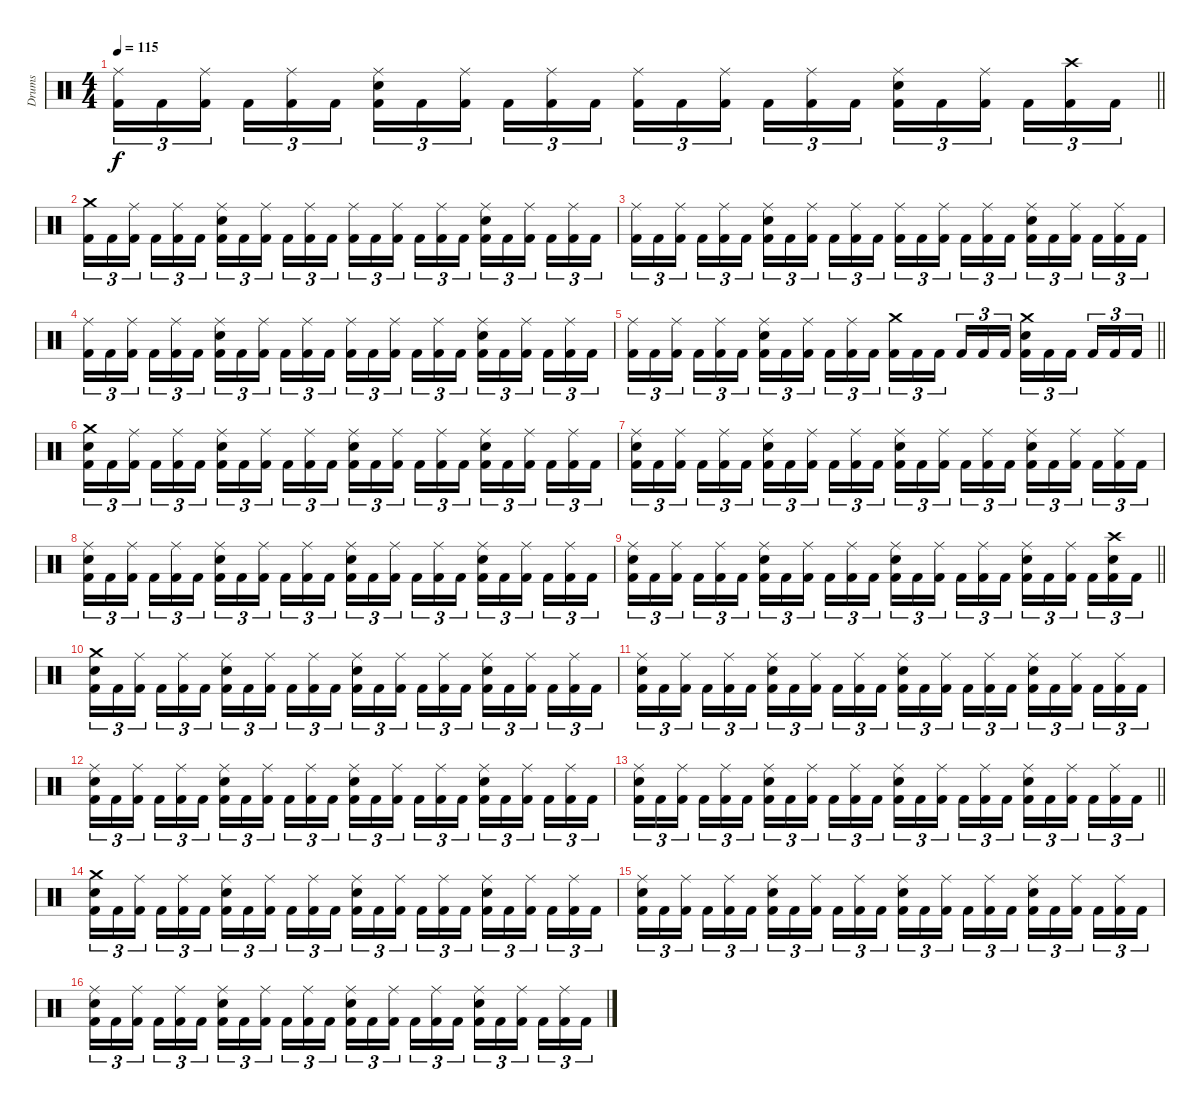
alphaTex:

\track ("Drums" "Drums") {instrument percussion}
\staff {score}
\articulation defaults
\ts (4 4)
\tempo 115
\clef neutral
\barLineRight lightlight
\ks c
("Kick (hit) 2" "Ride (middle)").16{tu (3 2) dy f} "Kick (hit) 2".16{tu (3 2)} ("Kick (hit) 2" "Ride (middle)").16{tu (3 2)} "Kick (hit) 2".16{tu (3 2)} ("Kick (hit) 2" "Ride (middle)").16{tu (3 2)} "Kick (hit) 2".16{tu (3 2)} ("Kick (hit) 2" "Electric Snare (hit)" "Ride (middle)").16{tu (3 2)} "Kick (hit) 2".16{tu (3 2)} ("Kick (hit) 2" "Ride (middle)").16{tu (3 2)} "Kick (hit) 2".16{tu (3 2)} ("Kick (hit) 2" "Ride (middle)").16{tu (3 2)} "Kick (hit) 2".16{tu (3 2)} ("Kick (hit) 2" "Ride (middle)").16{tu (3 2)} "Kick (hit) 2".16{tu (3 2)} ("Kick (hit) 2" "Ride (middle)").16{tu (3 2)} "Kick (hit) 2".16{tu (3 2)} ("Kick (hit) 2" "Ride (middle)").16{tu (3 2)} "Kick (hit) 2".16{tu (3 2)} ("Kick (hit) 2" "Electric Snare (hit)" "Ride (middle)").16{tu (3 2)} "Kick (hit) 2".16{tu (3 2)} ("Kick (hit) 2" "Ride (middle)").16{tu (3 2)} "Kick (hit) 2".16{tu (3 2)} ("Kick (hit) 2" "Crash high (hit)").16{tu (3 2)} "Kick (hit) 2".16{tu (3 2)} |
("Kick (hit) 2" "Crash medium (hit)").16{tu (3 2) volume 14} "Kick (hit) 2".16{tu (3 2)} ("Kick (hit) 2" "Ride (middle)").16{tu (3 2)} "Kick (hit) 2".16{tu (3 2)} ("Kick (hit) 2" "Ride (middle)").16{tu (3 2)} "Kick (hit) 2".16{tu (3 2)} ("Kick (hit) 2" "Electric Snare (hit)" "Ride (middle)").16{tu (3 2)} "Kick (hit) 2".16{tu (3 2)} ("Kick (hit) 2" "Ride (middle)").16{tu (3 2)} "Kick (hit) 2".16{tu (3 2)} ("Kick (hit) 2" "Ride (middle)").16{tu (3 2)} "Kick (hit) 2".16{tu (3 2)} ("Kick (hit) 2" "Ride (middle)").16{tu (3 2)} "Kick (hit) 2".16{tu (3 2)} ("Kick (hit) 2" "Ride (middle)").16{tu (3 2)} "Kick (hit) 2".16{tu (3 2)} ("Kick (hit) 2" "Ride (middle)").16{tu (3 2)} "Kick (hit) 2".16{tu (3 2)} ("Kick (hit) 2" "Electric Snare (hit)" "Ride (middle)").16{tu (3 2)} "Kick (hit) 2".16{tu (3 2)} ("Kick (hit) 2" "Ride (middle)").16{tu (3 2)} "Kick (hit) 2".16{tu (3 2)} ("Kick (hit) 2" "Ride (middle)").16{tu (3 2)} "Kick (hit) 2".16{tu (3 2)} |
("Kick (hit) 2" "Ride (middle)").16{tu (3 2)} "Kick (hit) 2".16{tu (3 2)} ("Kick (hit) 2" "Ride (middle)").16{tu (3 2)} "Kick (hit) 2".16{tu (3 2)} ("Kick (hit) 2" "Ride (middle)").16{tu (3 2)} "Kick (hit) 2".16{tu (3 2)} ("Kick (hit) 2" "Electric Snare (hit)" "Ride (middle)").16{tu (3 2)} "Kick (hit) 2".16{tu (3 2)} ("Kick (hit) 2" "Ride (middle)").16{tu (3 2)} "Kick (hit) 2".16{tu (3 2)} ("Kick (hit) 2" "Ride (middle)").16{tu (3 2)} "Kick (hit) 2".16{tu (3 2)} ("Kick (hit) 2" "Ride (middle)").16{tu (3 2)} "Kick (hit) 2".16{tu (3 2)} ("Kick (hit) 2" "Ride (middle)").16{tu (3 2)} "Kick (hit) 2".16{tu (3 2)} ("Kick (hit) 2" "Ride (middle)").16{tu (3 2)} "Kick (hit) 2".16{tu (3 2)} ("Kick (hit) 2" "Electric Snare (hit)" "Ride (middle)").16{tu (3 2)} "Kick (hit) 2".16{tu (3 2)} ("Kick (hit) 2" "Ride (middle)").16{tu (3 2)} "Kick (hit) 2".16{tu (3 2)} ("Kick (hit) 2" "Ride (middle)").16{tu (3 2)} "Kick (hit) 2".16{tu (3 2)} |
("Kick (hit) 2" "Ride (middle)").16{tu (3 2) volume 12} "Kick (hit) 2".16{tu (3 2)} ("Kick (hit) 2" "Ride (middle)").16{tu (3 2)} "Kick (hit) 2".16{tu (3 2)} ("Kick (hit) 2" "Ride (middle)").16{tu (3 2)} "Kick (hit) 2".16{tu (3 2)} ("Kick (hit) 2" "Electric Snare (hit)" "Ride (middle)").16{tu (3 2)} "Kick (hit) 2".16{tu (3 2)} ("Kick (hit) 2" "Ride (middle)").16{tu (3 2)} "Kick (hit) 2".16{tu (3 2)} ("Kick (hit) 2" "Ride (middle)").16{tu (3 2)} "Kick (hit) 2".16{tu (3 2)} ("Kick (hit) 2" "Ride (middle)").16{tu (3 2)} "Kick (hit) 2".16{tu (3 2)} ("Kick (hit) 2" "Ride (middle)").16{tu (3 2)} "Kick (hit) 2".16{tu (3 2)} ("Kick (hit) 2" "Ride (middle)").16{tu (3 2)} "Kick (hit) 2".16{tu (3 2)} ("Kick (hit) 2" "Electric Snare (hit)" "Ride (middle)").16{tu (3 2)} "Kick (hit) 2".16{tu (3 2)} ("Kick (hit) 2" "Ride (middle)").16{tu (3 2)} "Kick (hit) 2".16{tu (3 2)} ("Kick (hit) 2" "Ride (middle)").16{tu (3 2)} "Kick (hit) 2".16{tu (3 2)} |
\barLineRight lightlight
("Kick (hit) 2" "Ride (middle)").16{tu (3 2)} "Kick (hit) 2".16{tu (3 2)} ("Kick (hit) 2" "Ride (middle)").16{tu (3 2)} "Kick (hit) 2".16{tu (3 2)} ("Kick (hit) 2" "Ride (middle)").16{tu (3 2)} "Kick (hit) 2".16{tu (3 2)} ("Kick (hit) 2" "Electric Snare (hit)" "Ride (middle)").16{tu (3 2)} "Kick (hit) 2".16{tu (3 2)} ("Kick (hit) 2" "Ride (middle)").16{tu (3 2)} "Kick (hit) 2".16{tu (3 2)} ("Kick (hit) 2" "Ride (middle)").16{tu (3 2)} "Kick (hit) 2".16{tu (3 2)} ("Kick (hit) 2" "Crash medium (hit)").16{tu (3 2)} "Kick (hit) 2".16{tu (3 2)} "Kick (hit) 2".16{tu (3 2)} "Kick (hit) 2".16{tu (3 2)} "Kick (hit) 2".16{tu (3 2)} "Kick (hit) 2".16{tu (3 2)} ("Kick (hit) 2" "Electric Snare (hit)" "Crash medium (hit)").16{tu (3 2)} "Kick (hit) 2".16{tu (3 2)} "Kick (hit) 2".16{tu (3 2)} "Kick (hit) 2".16{tu (3 2)} "Kick (hit) 2".16{tu (3 2)} "Kick (hit) 2".16{tu (3 2)} |
("Kick (hit) 2" "Electric Snare (hit)" "Crash medium (hit)").16{tu (3 2) volume 10} "Kick (hit) 2".16{tu (3 2)} ("Kick (hit) 2" "Ride (middle)").16{tu (3 2)} "Kick (hit) 2".16{tu (3 2)} ("Kick (hit) 2" "Ride (middle)").16{tu (3 2)} "Kick (hit) 2".16{tu (3 2)} ("Kick (hit) 2" "Electric Snare (hit)" "Ride (middle)").16{tu (3 2)} "Kick (hit) 2".16{tu (3 2)} ("Kick (hit) 2" "Ride (middle)").16{tu (3 2)} "Kick (hit) 2".16{tu (3 2)} ("Kick (hit) 2" "Ride (middle)").16{tu (3 2)} "Kick (hit) 2".16{tu (3 2)} ("Kick (hit) 2" "Electric Snare (hit)" "Ride (middle)").16{tu (3 2)} "Kick (hit) 2".16{tu (3 2)} ("Kick (hit) 2" "Ride (middle)").16{tu (3 2)} "Kick (hit) 2".16{tu (3 2)} ("Kick (hit) 2" "Ride (middle)").16{tu (3 2)} "Kick (hit) 2".16{tu (3 2)} ("Kick (hit) 2" "Electric Snare (hit)" "Ride (middle)").16{tu (3 2)} "Kick (hit) 2".16{tu (3 2)} ("Kick (hit) 2" "Ride (middle)").16{tu (3 2)} "Kick (hit) 2".16{tu (3 2)} ("Kick (hit) 2" "Ride (middle)").16{tu (3 2)} "Kick (hit) 2".16{tu (3 2)} |
("Kick (hit) 2" "Electric Snare (hit)" "Ride (middle)").16{tu (3 2)} "Kick (hit) 2".16{tu (3 2)} ("Kick (hit) 2" "Ride (middle)").16{tu (3 2)} "Kick (hit) 2".16{tu (3 2)} ("Kick (hit) 2" "Ride (middle)").16{tu (3 2)} "Kick (hit) 2".16{tu (3 2)} ("Kick (hit) 2" "Electric Snare (hit)" "Ride (middle)").16{tu (3 2)} "Kick (hit) 2".16{tu (3 2)} ("Kick (hit) 2" "Ride (middle)").16{tu (3 2)} "Kick (hit) 2".16{tu (3 2)} ("Kick (hit) 2" "Ride (middle)").16{tu (3 2)} "Kick (hit) 2".16{tu (3 2)} ("Kick (hit) 2" "Electric Snare (hit)" "Ride (middle)").16{tu (3 2)} "Kick (hit) 2".16{tu (3 2)} ("Kick (hit) 2" "Ride (middle)").16{tu (3 2)} "Kick (hit) 2".16{tu (3 2)} ("Kick (hit) 2" "Ride (middle)").16{tu (3 2)} "Kick (hit) 2".16{tu (3 2)} ("Kick (hit) 2" "Electric Snare (hit)" "Ride (middle)").16{tu (3 2)} "Kick (hit) 2".16{tu (3 2)} ("Kick (hit) 2" "Ride (middle)").16{tu (3 2)} "Kick (hit) 2".16{tu (3 2)} ("Kick (hit) 2" "Ride (middle)").16{tu (3 2)} "Kick (hit) 2".16{tu (3 2)} |
("Kick (hit) 2" "Electric Snare (hit)" "Ride (middle)").16{tu (3 2) volume 8} "Kick (hit) 2".16{tu (3 2)} ("Kick (hit) 2" "Ride (middle)").16{tu (3 2)} "Kick (hit) 2".16{tu (3 2)} ("Kick (hit) 2" "Ride (middle)").16{tu (3 2)} "Kick (hit) 2".16{tu (3 2)} ("Kick (hit) 2" "Electric Snare (hit)" "Ride (middle)").16{tu (3 2)} "Kick (hit) 2".16{tu (3 2)} ("Kick (hit) 2" "Ride (middle)").16{tu (3 2)} "Kick (hit) 2".16{tu (3 2)} ("Kick (hit) 2" "Ride (middle)").16{tu (3 2)} "Kick (hit) 2".16{tu (3 2)} ("Kick (hit) 2" "Electric Snare (hit)" "Ride (middle)").16{tu (3 2)} "Kick (hit) 2".16{tu (3 2)} ("Kick (hit) 2" "Ride (middle)").16{tu (3 2)} "Kick (hit) 2".16{tu (3 2)} ("Kick (hit) 2" "Ride (middle)").16{tu (3 2)} "Kick (hit) 2".16{tu (3 2)} ("Kick (hit) 2" "Electric Snare (hit)" "Ride (middle)").16{tu (3 2)} "Kick (hit) 2".16{tu (3 2)} ("Kick (hit) 2" "Ride (middle)").16{tu (3 2)} "Kick (hit) 2".16{tu (3 2)} ("Kick (hit) 2" "Ride (middle)").16{tu (3 2)} "Kick (hit) 2".16{tu (3 2)} |
\barLineRight lightlight
("Kick (hit) 2" "Electric Snare (hit)" "Ride (middle)").16{tu (3 2)} "Kick (hit) 2".16{tu (3 2)} ("Kick (hit) 2" "Ride (middle)").16{tu (3 2)} "Kick (hit) 2".16{tu (3 2)} ("Kick (hit) 2" "Ride (middle)").16{tu (3 2)} "Kick (hit) 2".16{tu (3 2)} ("Kick (hit) 2" "Electric Snare (hit)" "Ride (middle)").16{tu (3 2)} "Kick (hit) 2".16{tu (3 2)} ("Kick (hit) 2" "Ride (middle)").16{tu (3 2)} "Kick (hit) 2".16{tu (3 2)} ("Kick (hit) 2" "Ride (middle)").16{tu (3 2)} "Kick (hit) 2".16{tu (3 2)} ("Kick (hit) 2" "Electric Snare (hit)" "Ride (middle)").16{tu (3 2)} "Kick (hit) 2".16{tu (3 2)} ("Kick (hit) 2" "Ride (middle)").16{tu (3 2)} "Kick (hit) 2".16{tu (3 2)} ("Kick (hit) 2" "Ride (middle)").16{tu (3 2)} "Kick (hit) 2".16{tu (3 2)} ("Kick (hit) 2" "Electric Snare (hit)" "Ride (middle)").16{tu (3 2)} "Kick (hit) 2".16{tu (3 2)} ("Kick (hit) 2" "Ride (middle)").16{tu (3 2)} "Kick (hit) 2".16{tu (3 2)} ("Kick (hit) 2" "Electric Snare (hit)" "Crash high (hit)").16{tu (3 2)} "Kick (hit) 2".16{tu (3 2)} |
("Kick (hit) 2" "Electric Snare (hit)" "Crash medium (hit)").16{tu (3 2) volume 6} "Kick (hit) 2".16{tu (3 2)} ("Kick (hit) 2" "Ride (middle)").16{tu (3 2)} "Kick (hit) 2".16{tu (3 2)} ("Kick (hit) 2" "Ride (middle)").16{tu (3 2)} "Kick (hit) 2".16{tu (3 2)} ("Kick (hit) 2" "Electric Snare (hit)" "Ride (middle)").16{tu (3 2)} "Kick (hit) 2".16{tu (3 2)} ("Kick (hit) 2" "Ride (middle)").16{tu (3 2)} "Kick (hit) 2".16{tu (3 2)} ("Kick (hit) 2" "Ride (middle)").16{tu (3 2)} "Kick (hit) 2".16{tu (3 2)} ("Kick (hit) 2" "Electric Snare (hit)" "Ride (middle)").16{tu (3 2)} "Kick (hit) 2".16{tu (3 2)} ("Kick (hit) 2" "Ride (middle)").16{tu (3 2)} "Kick (hit) 2".16{tu (3 2)} ("Kick (hit) 2" "Ride (middle)").16{tu (3 2)} "Kick (hit) 2".16{tu (3 2)} ("Kick (hit) 2" "Electric Snare (hit)" "Ride (middle)").16{tu (3 2)} "Kick (hit) 2".16{tu (3 2)} ("Kick (hit) 2" "Ride (middle)").16{tu (3 2)} "Kick (hit) 2".16{tu (3 2)} ("Kick (hit) 2" "Ride (middle)").16{tu (3 2)} "Kick (hit) 2".16{tu (3 2)} |
("Kick (hit) 2" "Electric Snare (hit)" "Ride (middle)").16{tu (3 2)} "Kick (hit) 2".16{tu (3 2)} ("Kick (hit) 2" "Ride (middle)").16{tu (3 2)} "Kick (hit) 2".16{tu (3 2)} ("Kick (hit) 2" "Ride (middle)").16{tu (3 2)} "Kick (hit) 2".16{tu (3 2)} ("Kick (hit) 2" "Electric Snare (hit)" "Ride (middle)").16{tu (3 2)} "Kick (hit) 2".16{tu (3 2)} ("Kick (hit) 2" "Ride (middle)").16{tu (3 2)} "Kick (hit) 2".16{tu (3 2)} ("Kick (hit) 2" "Ride (middle)").16{tu (3 2)} "Kick (hit) 2".16{tu (3 2)} ("Kick (hit) 2" "Electric Snare (hit)" "Ride (middle)").16{tu (3 2)} "Kick (hit) 2".16{tu (3 2)} ("Kick (hit) 2" "Ride (middle)").16{tu (3 2)} "Kick (hit) 2".16{tu (3 2)} ("Kick (hit) 2" "Ride (middle)").16{tu (3 2)} "Kick (hit) 2".16{tu (3 2)} ("Kick (hit) 2" "Electric Snare (hit)" "Ride (middle)").16{tu (3 2)} "Kick (hit) 2".16{tu (3 2)} ("Kick (hit) 2" "Ride (middle)").16{tu (3 2)} "Kick (hit) 2".16{tu (3 2)} ("Kick (hit) 2" "Ride (middle)").16{tu (3 2)} "Kick (hit) 2".16{tu (3 2)} |
("Kick (hit) 2" "Electric Snare (hit)" "Ride (middle)").16{tu (3 2) volume 4} "Kick (hit) 2".16{tu (3 2)} ("Kick (hit) 2" "Ride (middle)").16{tu (3 2)} "Kick (hit) 2".16{tu (3 2)} ("Kick (hit) 2" "Ride (middle)").16{tu (3 2)} "Kick (hit) 2".16{tu (3 2)} ("Kick (hit) 2" "Electric Snare (hit)" "Ride (middle)").16{tu (3 2)} "Kick (hit) 2".16{tu (3 2)} ("Kick (hit) 2" "Ride (middle)").16{tu (3 2)} "Kick (hit) 2".16{tu (3 2)} ("Kick (hit) 2" "Ride (middle)").16{tu (3 2)} "Kick (hit) 2".16{tu (3 2)} ("Kick (hit) 2" "Electric Snare (hit)" "Ride (middle)").16{tu (3 2)} "Kick (hit) 2".16{tu (3 2)} ("Kick (hit) 2" "Ride (middle)").16{tu (3 2)} "Kick (hit) 2".16{tu (3 2)} ("Kick (hit) 2" "Ride (middle)").16{tu (3 2)} "Kick (hit) 2".16{tu (3 2)} ("Kick (hit) 2" "Electric Snare (hit)" "Ride (middle)").16{tu (3 2)} "Kick (hit) 2".16{tu (3 2)} ("Kick (hit) 2" "Ride (middle)").16{tu (3 2)} "Kick (hit) 2".16{tu (3 2)} ("Kick (hit) 2" "Ride (middle)").16{tu (3 2)} "Kick (hit) 2".16{tu (3 2)} |
\barLineRight lightlight
("Kick (hit) 2" "Electric Snare (hit)" "Ride (middle)").16{tu (3 2)} "Kick (hit) 2".16{tu (3 2)} ("Kick (hit) 2" "Ride (middle)").16{tu (3 2)} "Kick (hit) 2".16{tu (3 2)} ("Kick (hit) 2" "Ride (middle)").16{tu (3 2)} "Kick (hit) 2".16{tu (3 2)} ("Kick (hit) 2" "Electric Snare (hit)" "Ride (middle)").16{tu (3 2)} "Kick (hit) 2".16{tu (3 2)} ("Kick (hit) 2" "Ride (middle)").16{tu (3 2)} "Kick (hit) 2".16{tu (3 2)} ("Kick (hit) 2" "Ride (middle)").16{tu (3 2)} "Kick (hit) 2".16{tu (3 2)} ("Kick (hit) 2" "Electric Snare (hit)" "Ride (middle)").16{tu (3 2)} "Kick (hit) 2".16{tu (3 2)} ("Kick (hit) 2" "Ride (middle)").16{tu (3 2)} "Kick (hit) 2".16{tu (3 2)} ("Kick (hit) 2" "Ride (middle)").16{tu (3 2)} "Kick (hit) 2".16{tu (3 2)} ("Kick (hit) 2" "Electric Snare (hit)" "Ride (middle)").16{tu (3 2)} "Kick (hit) 2".16{tu (3 2)} ("Kick (hit) 2" "Ride (middle)").16{tu (3 2)} "Kick (hit) 2".16{tu (3 2)} ("Kick (hit) 2" "Ride (middle)").16{tu (3 2)} "Kick (hit) 2".16{tu (3 2)} |
("Kick (hit) 2" "Electric Snare (hit)" "Crash medium (hit)").16{tu (3 2) volume 2} "Kick (hit) 2".16{tu (3 2)} ("Kick (hit) 2" "Ride (middle)").16{tu (3 2)} "Kick (hit) 2".16{tu (3 2)} ("Kick (hit) 2" "Ride (middle)").16{tu (3 2)} "Kick (hit) 2".16{tu (3 2)} ("Kick (hit) 2" "Electric Snare (hit)" "Ride (middle)").16{tu (3 2)} "Kick (hit) 2".16{tu (3 2)} ("Kick (hit) 2" "Ride (middle)").16{tu (3 2)} "Kick (hit) 2".16{tu (3 2)} ("Kick (hit) 2" "Ride (middle)").16{tu (3 2)} "Kick (hit) 2".16{tu (3 2)} ("Kick (hit) 2" "Electric Snare (hit)" "Ride (middle)").16{tu (3 2)} "Kick (hit) 2".16{tu (3 2)} ("Kick (hit) 2" "Ride (middle)").16{tu (3 2)} "Kick (hit) 2".16{tu (3 2)} ("Kick (hit) 2" "Ride (middle)").16{tu (3 2)} "Kick (hit) 2".16{tu (3 2)} ("Kick (hit) 2" "Electric Snare (hit)" "Ride (middle)").16{tu (3 2)} "Kick (hit) 2".16{tu (3 2)} ("Kick (hit) 2" "Ride (middle)").16{tu (3 2)} "Kick (hit) 2".16{tu (3 2)} ("Kick (hit) 2" "Ride (middle)").16{tu (3 2)} "Kick (hit) 2".16{tu (3 2)} |
("Kick (hit) 2" "Electric Snare (hit)" "Ride (middle)").16{tu (3 2)} "Kick (hit) 2".16{tu (3 2)} ("Kick (hit) 2" "Ride (middle)").16{tu (3 2)} "Kick (hit) 2".16{tu (3 2)} ("Kick (hit) 2" "Ride (middle)").16{tu (3 2)} "Kick (hit) 2".16{tu (3 2)} ("Kick (hit) 2" "Electric Snare (hit)" "Ride (middle)").16{tu (3 2)} "Kick (hit) 2".16{tu (3 2)} ("Kick (hit) 2" "Ride (middle)").16{tu (3 2)} "Kick (hit) 2".16{tu (3 2)} ("Kick (hit) 2" "Ride (middle)").16{tu (3 2)} "Kick (hit) 2".16{tu (3 2)} ("Kick (hit) 2" "Electric Snare (hit)" "Ride (middle)").16{tu (3 2)} "Kick (hit) 2".16{tu (3 2)} ("Kick (hit) 2" "Ride (middle)").16{tu (3 2)} "Kick (hit) 2".16{tu (3 2)} ("Kick (hit) 2" "Ride (middle)").16{tu (3 2)} "Kick (hit) 2".16{tu (3 2)} ("Kick (hit) 2" "Electric Snare (hit)" "Ride (middle)").16{tu (3 2)} "Kick (hit) 2".16{tu (3 2)} ("Kick (hit) 2" "Ride (middle)").16{tu (3 2)} "Kick (hit) 2".16{tu (3 2)} ("Kick (hit) 2" "Ride (middle)").16{tu (3 2)} "Kick (hit) 2".16{tu (3 2)} |
("Kick (hit) 2" "Electric Snare (hit)" "Ride (middle)").16{tu (3 2) volume 0} "Kick (hit) 2".16{tu (3 2)} ("Kick (hit) 2" "Ride (middle)").16{tu (3 2)} "Kick (hit) 2".16{tu (3 2)} ("Kick (hit) 2" "Ride (middle)").16{tu (3 2)} "Kick (hit) 2".16{tu (3 2)} ("Kick (hit) 2" "Electric Snare (hit)" "Ride (middle)").16{tu (3 2)} "Kick (hit) 2".16{tu (3 2)} ("Kick (hit) 2" "Ride (middle)").16{tu (3 2)} "Kick (hit) 2".16{tu (3 2)} ("Kick (hit) 2" "Ride (middle)").16{tu (3 2)} "Kick (hit) 2".16{tu (3 2)} ("Kick (hit) 2" "Electric Snare (hit)" "Ride (middle)").16{tu (3 2)} "Kick (hit) 2".16{tu (3 2)} ("Kick (hit) 2" "Ride (middle)").16{tu (3 2)} "Kick (hit) 2".16{tu (3 2)} ("Kick (hit) 2" "Ride (middle)").16{tu (3 2)} "Kick (hit) 2".16{tu (3 2)} ("Kick (hit) 2" "Electric Snare (hit)" "Ride (middle)").16{tu (3 2)} "Kick (hit) 2".16{tu (3 2)} ("Kick (hit) 2" "Ride (middle)").16{tu (3 2)} "Kick (hit) 2".16{tu (3 2)} ("Kick (hit) 2" "Ride (middle)").16{tu (3 2)} "Kick (hit) 2".16{tu (3 2)}
